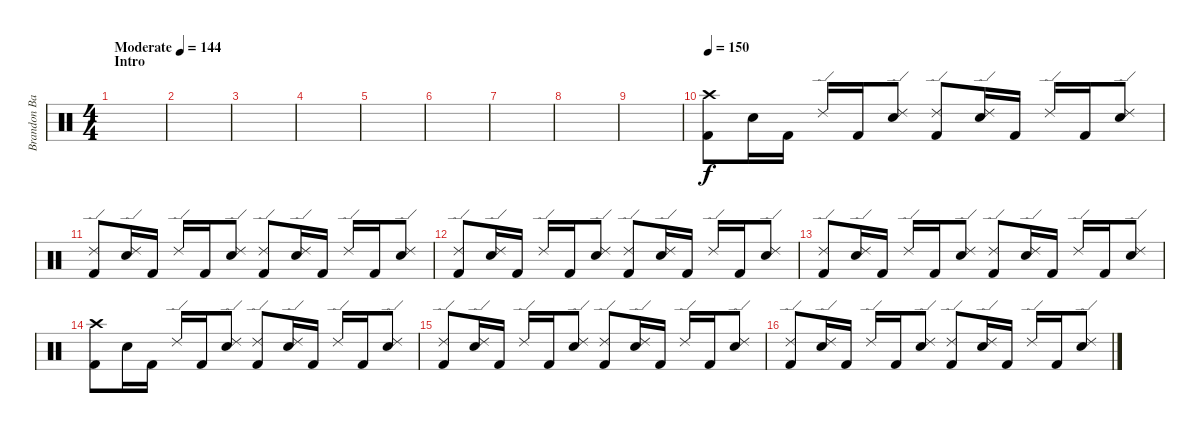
\track ("Brandon Barnes - Drums" "Brandon Ba") {instrument percussion}
\staff {score}
\articulation defaults
\ts (4 4)
\section ("" "Intro")
\tempo (144 "Moderate")
\clef neutral
\ks c
|
|
|
|
|
|
|
|
|
\tempo 150
("Crash high (hit)" "Kick (hit) 2").8 "Snare (hit) 2".16 "Kick (hit) 2".16 "Ride (edge) 2".16 "Kick (hit) 2".16 ("Snare (hit) 2" "Ride (edge) 2").8 ("Ride (edge) 2" "Kick (hit) 2").8 ("Snare (hit) 2" "Ride (edge) 2").16 "Kick (hit) 2".16 "Ride (edge) 2".16 "Kick (hit) 2".16 ("Snare (hit) 2" "Ride (edge) 2").8 |
("Ride (edge) 2" "Kick (hit) 2").8 ("Snare (hit) 2" "Ride (edge) 2").16 "Kick (hit) 2".16 "Ride (edge) 2".16 "Kick (hit) 2".16 ("Snare (hit) 2" "Ride (edge) 2").8 ("Ride (edge) 2" "Kick (hit) 2").8 ("Snare (hit) 2" "Ride (edge) 2").16 "Kick (hit) 2".16 "Ride (edge) 2".16 "Kick (hit) 2".16 ("Snare (hit) 2" "Ride (edge) 2").8 |
("Ride (edge) 2" "Kick (hit) 2").8 ("Snare (hit) 2" "Ride (edge) 2").16 "Kick (hit) 2".16 "Ride (edge) 2".16 "Kick (hit) 2".16 ("Snare (hit) 2" "Ride (edge) 2").8 ("Ride (edge) 2" "Kick (hit) 2").8 ("Snare (hit) 2" "Ride (edge) 2").16 "Kick (hit) 2".16 "Ride (edge) 2".16 "Kick (hit) 2".16 ("Snare (hit) 2" "Ride (edge) 2").8 |
("Ride (edge) 2" "Kick (hit) 2").8 ("Snare (hit) 2" "Ride (edge) 2").16 "Kick (hit) 2".16 "Ride (edge) 2".16 "Kick (hit) 2".16 ("Snare (hit) 2" "Ride (edge) 2").8 ("Ride (edge) 2" "Kick (hit) 2").8 ("Snare (hit) 2" "Ride (edge) 2").16 "Kick (hit) 2".16 "Ride (edge) 2".16 "Kick (hit) 2".16 ("Snare (hit) 2" "Ride (edge) 2").8 |
("Crash high (hit)" "Kick (hit) 2").8 "Snare (hit) 2".16 "Kick (hit) 2".16 "Ride (edge) 2".16 "Kick (hit) 2".16 ("Snare (hit) 2" "Ride (edge) 2").8 ("Ride (edge) 2" "Kick (hit) 2").8 ("Snare (hit) 2" "Ride (edge) 2").16 "Kick (hit) 2".16 "Ride (edge) 2".16 "Kick (hit) 2".16 ("Snare (hit) 2" "Ride (edge) 2").8 |
("Ride (edge) 2" "Kick (hit) 2").8 ("Snare (hit) 2" "Ride (edge) 2").16 "Kick (hit) 2".16 "Ride (edge) 2".16 "Kick (hit) 2".16 ("Snare (hit) 2" "Ride (edge) 2").8 ("Ride (edge) 2" "Kick (hit) 2").8 ("Snare (hit) 2" "Ride (edge) 2").16 "Kick (hit) 2".16 "Ride (edge) 2".16 "Kick (hit) 2".16 ("Snare (hit) 2" "Ride (edge) 2").8 |
("Ride (edge) 2" "Kick (hit) 2").8 ("Snare (hit) 2" "Ride (edge) 2").16 "Kick (hit) 2".16 "Ride (edge) 2".16 "Kick (hit) 2".16 ("Snare (hit) 2" "Ride (edge) 2").8 ("Ride (edge) 2" "Kick (hit) 2").8 ("Snare (hit) 2" "Ride (edge) 2").16 "Kick (hit) 2".16 "Ride (edge) 2".16 "Kick (hit) 2".16 ("Snare (hit) 2" "Ride (edge) 2").8
